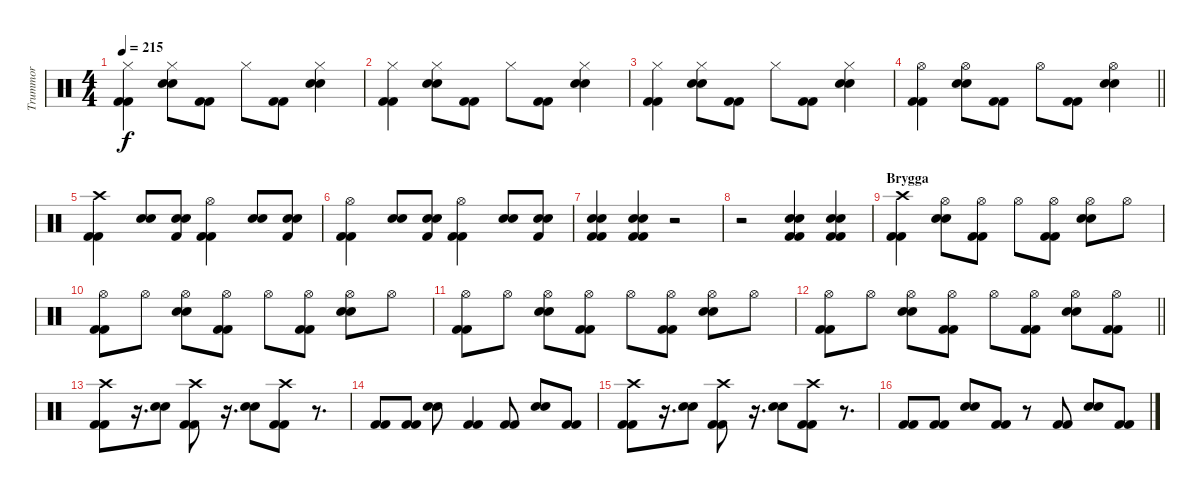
\track ("Trummor" "Trummor") {instrument percussion}
\staff {score}
\articulation defaults
\ts (4 4)
\tempo 215
\clef neutral
\ks c
("Hi-Hat (closed)" "Kick (hit) 2" "Kick (hit) 2").4{dy f} ("Hi-Hat (closed)" "Electric Snare (hit)" "Electric Snare (hit)").8 ("Kick (hit) 2" "Kick (hit) 2").8 "Hi-Hat (closed)".8 ("Kick (hit) 2" "Kick (hit) 2").8 ("Hi-Hat (closed)" "Electric Snare (hit)" "Electric Snare (hit)").4 |
("Hi-Hat (closed)" "Kick (hit) 2" "Kick (hit) 2").4 ("Hi-Hat (closed)" "Electric Snare (hit)" "Electric Snare (hit)").8 ("Kick (hit) 2" "Kick (hit) 2").8 "Hi-Hat (closed)".8 ("Kick (hit) 2" "Kick (hit) 2").8 ("Hi-Hat (closed)" "Electric Snare (hit)" "Electric Snare (hit)").4 |
("Hi-Hat (closed)" "Kick (hit) 2" "Kick (hit) 2").4 ("Hi-Hat (closed)" "Electric Snare (hit)" "Electric Snare (hit)").8 ("Kick (hit) 2" "Kick (hit) 2").8 "Hi-Hat (closed)".8 ("Kick (hit) 2" "Kick (hit) 2").8 ("Hi-Hat (closed)" "Electric Snare (hit)" "Electric Snare (hit)").4 |
\barLineRight lightlight
("Hi-Hat (open)" "Kick (hit) 2" "Kick (hit) 2").4 ("Hi-Hat (open)" "Electric Snare (hit)" "Electric Snare (hit)").8 ("Kick (hit) 2" "Kick (hit) 2").8 "Hi-Hat (open)".8 ("Kick (hit) 2" "Kick (hit) 2").8 ("Hi-Hat (open)" "Electric Snare (hit)" "Electric Snare (hit)").4 |
("Crash high (hit)" "Kick (hit) 2" "Kick (hit) 2").4 ("Electric Snare (hit)" "Electric Snare (hit)").8 ("Electric Snare (hit)" "Electric Snare (hit)" "Kick (hit) 2").8 ("Hi-Hat (open)" "Kick (hit) 2" "Kick (hit) 2").4 ("Electric Snare (hit)" "Electric Snare (hit)").8 ("Electric Snare (hit)" "Electric Snare (hit)" "Kick (hit) 2").8 |
("Hi-Hat (open)" "Kick (hit) 2" "Kick (hit) 2").4 ("Electric Snare (hit)" "Electric Snare (hit)").8 ("Electric Snare (hit)" "Electric Snare (hit)" "Kick (hit) 2").8 ("Hi-Hat (open)" "Kick (hit) 2" "Kick (hit) 2").4 ("Electric Snare (hit)" "Electric Snare (hit)").8 ("Electric Snare (hit)" "Electric Snare (hit)" "Kick (hit) 2").8 |
("Electric Snare (hit)" "Electric Snare (hit)" "Kick (hit) 2" "Kick (hit) 2").4 ("Electric Snare (hit)" "Electric Snare (hit)" "Kick (hit) 2" "Kick (hit) 2").4 r.2 |
r.2 ("Electric Snare (hit)" "Electric Snare (hit)" "Kick (hit) 2" "Kick (hit) 2").4 ("Electric Snare (hit)" "Electric Snare (hit)" "Kick (hit) 2" "Kick (hit) 2").4 |
\section ("" "Brygga")
("Crash high (hit)" "Kick (hit) 2" "Kick (hit) 2").4 ("Hi-Hat (open)" "Electric Snare (hit)" "Electric Snare (hit)").8 ("Hi-Hat (open)" "Kick (hit) 2" "Kick (hit) 2").8 "Hi-Hat (open)".8 ("Hi-Hat (open)" "Kick (hit) 2" "Kick (hit) 2").8 ("Hi-Hat (open)" "Electric Snare (hit)" "Electric Snare (hit)").8 "Hi-Hat (open)".8 |
("Hi-Hat (open)" "Kick (hit) 2" "Kick (hit) 2").8 "Hi-Hat (open)".8 ("Hi-Hat (open)" "Electric Snare (hit)" "Electric Snare (hit)").8 ("Hi-Hat (open)" "Kick (hit) 2" "Kick (hit) 2").8 "Hi-Hat (open)".8 ("Hi-Hat (open)" "Kick (hit) 2" "Kick (hit) 2").8 ("Hi-Hat (open)" "Electric Snare (hit)" "Electric Snare (hit)").8 "Hi-Hat (open)".8 |
("Hi-Hat (open)" "Kick (hit) 2" "Kick (hit) 2").8 "Hi-Hat (open)".8 ("Hi-Hat (open)" "Electric Snare (hit)" "Electric Snare (hit)").8 ("Hi-Hat (open)" "Kick (hit) 2" "Kick (hit) 2").8 "Hi-Hat (open)".8 ("Hi-Hat (open)" "Kick (hit) 2" "Kick (hit) 2").8 ("Hi-Hat (open)" "Electric Snare (hit)" "Electric Snare (hit)").8 "Hi-Hat (open)".8 |
\barLineRight lightlight
("Hi-Hat (open)" "Kick (hit) 2" "Kick (hit) 2").8 "Hi-Hat (open)".8 ("Hi-Hat (open)" "Electric Snare (hit)" "Electric Snare (hit)").8 ("Hi-Hat (open)" "Kick (hit) 2" "Kick (hit) 2").8 "Hi-Hat (open)".8 ("Hi-Hat (open)" "Kick (hit) 2" "Kick (hit) 2").8 ("Hi-Hat (open)" "Electric Snare (hit)" "Electric Snare (hit)").8 ("Hi-Hat (open)" "Kick (hit) 2" "Kick (hit) 2").8 |
("Crash high (hit)" "Kick (hit) 2" "Kick (hit) 2").8 r.16{d} ("Electric Snare (hit)" "Electric Snare (hit)").8 ("Crash high (hit)" "Kick (hit) 2" "Kick (hit) 2").8 r.16{d} ("Electric Snare (hit)" "Electric Snare (hit)").8 ("Crash high (hit)" "Kick (hit) 2" "Kick (hit) 2").8 r.8{d} |
("Kick (hit) 2" "Kick (hit) 2").8 ("Kick (hit) 2" "Kick (hit) 2").8 ("Electric Snare (hit)" "Electric Snare (hit)").8 ("Kick (hit) 2" "Kick (hit) 2").4 ("Kick (hit) 2" "Kick (hit) 2").8 ("Electric Snare (hit)" "Electric Snare (hit)").8 ("Kick (hit) 2" "Kick (hit) 2").8 |
("Crash high (hit)" "Kick (hit) 2" "Kick (hit) 2").8 r.16{d} ("Electric Snare (hit)" "Electric Snare (hit)").8 ("Crash high (hit)" "Kick (hit) 2" "Kick (hit) 2").8 r.16{d} ("Electric Snare (hit)" "Electric Snare (hit)").8 ("Crash high (hit)" "Kick (hit) 2" "Kick (hit) 2").8 r.8{d} |
("Kick (hit) 2" "Kick (hit) 2").8 ("Kick (hit) 2" "Kick (hit) 2").8 ("Electric Snare (hit)" "Electric Snare (hit)").8 ("Kick (hit) 2" "Kick (hit) 2").8 r.8 ("Kick (hit) 2" "Kick (hit) 2").8 ("Electric Snare (hit)" "Electric Snare (hit)").8 ("Kick (hit) 2" "Kick (hit) 2").8
